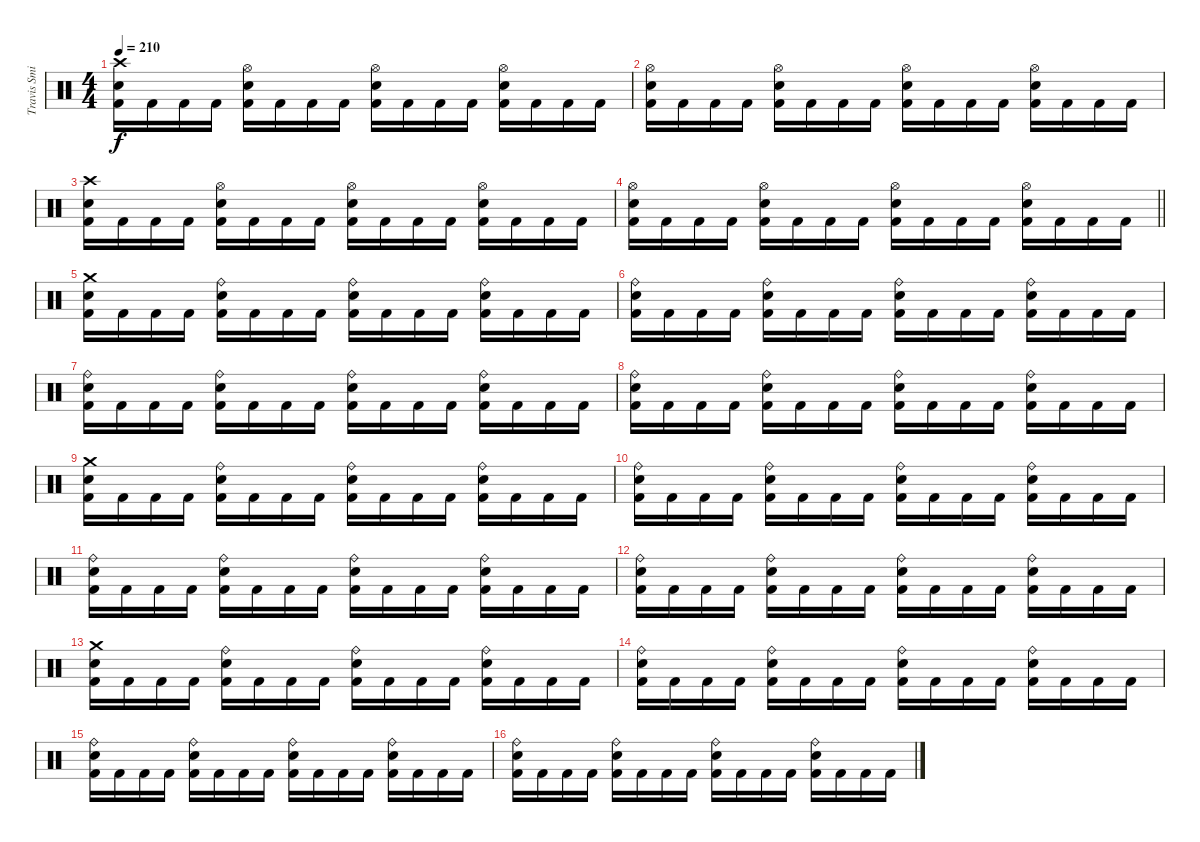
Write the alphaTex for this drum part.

\track ("Travis Smith" "Travis Smi") {instrument percussion}
\staff {score}
\articulation defaults
\ts (4 4)
\tempo 210
\clef neutral
\ks c
("Crash high (hit)" "Electric Snare (hit)" "Kick (hit) 2").16{dy f} "Kick (hit) 2".16 "Kick (hit) 2".16 "Kick (hit) 2".16 ("Hi-Hat (open)" "Electric Snare (hit)" "Kick (hit) 2").16 "Kick (hit) 2".16 "Kick (hit) 2".16 "Kick (hit) 2".16 ("Hi-Hat (open)" "Electric Snare (hit)" "Kick (hit) 2").16 "Kick (hit) 2".16 "Kick (hit) 2".16 "Kick (hit) 2".16 ("Hi-Hat (open)" "Electric Snare (hit)" "Kick (hit) 2").16 "Kick (hit) 2".16 "Kick (hit) 2".16 "Kick (hit) 2".16 |
("Hi-Hat (open)" "Electric Snare (hit)" "Kick (hit) 2").16 "Kick (hit) 2".16 "Kick (hit) 2".16 "Kick (hit) 2".16 ("Hi-Hat (open)" "Electric Snare (hit)" "Kick (hit) 2").16 "Kick (hit) 2".16 "Kick (hit) 2".16 "Kick (hit) 2".16 ("Hi-Hat (open)" "Electric Snare (hit)" "Kick (hit) 2").16 "Kick (hit) 2".16 "Kick (hit) 2".16 "Kick (hit) 2".16 ("Hi-Hat (open)" "Electric Snare (hit)" "Kick (hit) 2").16 "Kick (hit) 2".16 "Kick (hit) 2".16 "Kick (hit) 2".16 |
("Crash high (hit)" "Electric Snare (hit)" "Kick (hit) 2").16 "Kick (hit) 2".16 "Kick (hit) 2".16 "Kick (hit) 2".16 ("Hi-Hat (open)" "Electric Snare (hit)" "Kick (hit) 2").16 "Kick (hit) 2".16 "Kick (hit) 2".16 "Kick (hit) 2".16 ("Hi-Hat (open)" "Electric Snare (hit)" "Kick (hit) 2").16 "Kick (hit) 2".16 "Kick (hit) 2".16 "Kick (hit) 2".16 ("Hi-Hat (open)" "Electric Snare (hit)" "Kick (hit) 2").16 "Kick (hit) 2".16 "Kick (hit) 2".16 "Kick (hit) 2".16 |
\barLineRight lightlight
("Hi-Hat (open)" "Electric Snare (hit)" "Kick (hit) 2").16 "Kick (hit) 2".16 "Kick (hit) 2".16 "Kick (hit) 2".16 ("Hi-Hat (open)" "Electric Snare (hit)" "Kick (hit) 2").16 "Kick (hit) 2".16 "Kick (hit) 2".16 "Kick (hit) 2".16 ("Hi-Hat (open)" "Electric Snare (hit)" "Kick (hit) 2").16 "Kick (hit) 2".16 "Kick (hit) 2".16 "Kick (hit) 2".16 ("Hi-Hat (open)" "Electric Snare (hit)" "Kick (hit) 2").16 "Kick (hit) 2".16 "Kick (hit) 2".16 "Kick (hit) 2".16 |
("Crash medium (hit)" "Electric Snare (hit)" "Kick (hit) 2").16 "Kick (hit) 2".16 "Kick (hit) 2".16 "Kick (hit) 2".16 ("Ride (bell)" "Electric Snare (hit)" "Kick (hit) 2").16 "Kick (hit) 2".16 "Kick (hit) 2".16 "Kick (hit) 2".16 ("Ride (bell)" "Electric Snare (hit)" "Kick (hit) 2").16 "Kick (hit) 2".16 "Kick (hit) 2".16 "Kick (hit) 2".16 ("Ride (bell)" "Electric Snare (hit)" "Kick (hit) 2").16 "Kick (hit) 2".16 "Kick (hit) 2".16 "Kick (hit) 2".16 |
("Ride (bell)" "Electric Snare (hit)" "Kick (hit) 2").16 "Kick (hit) 2".16 "Kick (hit) 2".16 "Kick (hit) 2".16 ("Ride (bell)" "Electric Snare (hit)" "Kick (hit) 2").16 "Kick (hit) 2".16 "Kick (hit) 2".16 "Kick (hit) 2".16 ("Ride (bell)" "Electric Snare (hit)" "Kick (hit) 2").16 "Kick (hit) 2".16 "Kick (hit) 2".16 "Kick (hit) 2".16 ("Ride (bell)" "Electric Snare (hit)" "Kick (hit) 2").16 "Kick (hit) 2".16 "Kick (hit) 2".16 "Kick (hit) 2".16 |
("Ride (bell)" "Electric Snare (hit)" "Kick (hit) 2").16 "Kick (hit) 2".16 "Kick (hit) 2".16 "Kick (hit) 2".16 ("Ride (bell)" "Electric Snare (hit)" "Kick (hit) 2").16 "Kick (hit) 2".16 "Kick (hit) 2".16 "Kick (hit) 2".16 ("Ride (bell)" "Electric Snare (hit)" "Kick (hit) 2").16 "Kick (hit) 2".16 "Kick (hit) 2".16 "Kick (hit) 2".16 ("Ride (bell)" "Electric Snare (hit)" "Kick (hit) 2").16 "Kick (hit) 2".16 "Kick (hit) 2".16 "Kick (hit) 2".16 |
("Ride (bell)" "Electric Snare (hit)" "Kick (hit) 2").16 "Kick (hit) 2".16 "Kick (hit) 2".16 "Kick (hit) 2".16 ("Ride (bell)" "Electric Snare (hit)" "Kick (hit) 2").16 "Kick (hit) 2".16 "Kick (hit) 2".16 "Kick (hit) 2".16 ("Ride (bell)" "Electric Snare (hit)" "Kick (hit) 2").16 "Kick (hit) 2".16 "Kick (hit) 2".16 "Kick (hit) 2".16 ("Ride (bell)" "Electric Snare (hit)" "Kick (hit) 2").16 "Kick (hit) 2".16 "Kick (hit) 2".16 "Kick (hit) 2".16 |
("Crash medium (hit)" "Electric Snare (hit)" "Kick (hit) 2").16 "Kick (hit) 2".16 "Kick (hit) 2".16 "Kick (hit) 2".16 ("Ride (bell)" "Electric Snare (hit)" "Kick (hit) 2").16 "Kick (hit) 2".16 "Kick (hit) 2".16 "Kick (hit) 2".16 ("Ride (bell)" "Electric Snare (hit)" "Kick (hit) 2").16 "Kick (hit) 2".16 "Kick (hit) 2".16 "Kick (hit) 2".16 ("Ride (bell)" "Electric Snare (hit)" "Kick (hit) 2").16 "Kick (hit) 2".16 "Kick (hit) 2".16 "Kick (hit) 2".16 |
("Ride (bell)" "Electric Snare (hit)" "Kick (hit) 2").16 "Kick (hit) 2".16 "Kick (hit) 2".16 "Kick (hit) 2".16 ("Ride (bell)" "Electric Snare (hit)" "Kick (hit) 2").16 "Kick (hit) 2".16 "Kick (hit) 2".16 "Kick (hit) 2".16 ("Ride (bell)" "Electric Snare (hit)" "Kick (hit) 2").16 "Kick (hit) 2".16 "Kick (hit) 2".16 "Kick (hit) 2".16 ("Ride (bell)" "Electric Snare (hit)" "Kick (hit) 2").16 "Kick (hit) 2".16 "Kick (hit) 2".16 "Kick (hit) 2".16 |
("Ride (bell)" "Electric Snare (hit)" "Kick (hit) 2").16 "Kick (hit) 2".16 "Kick (hit) 2".16 "Kick (hit) 2".16 ("Ride (bell)" "Electric Snare (hit)" "Kick (hit) 2").16 "Kick (hit) 2".16 "Kick (hit) 2".16 "Kick (hit) 2".16 ("Ride (bell)" "Electric Snare (hit)" "Kick (hit) 2").16 "Kick (hit) 2".16 "Kick (hit) 2".16 "Kick (hit) 2".16 ("Ride (bell)" "Electric Snare (hit)" "Kick (hit) 2").16 "Kick (hit) 2".16 "Kick (hit) 2".16 "Kick (hit) 2".16 |
("Ride (bell)" "Electric Snare (hit)" "Kick (hit) 2").16 "Kick (hit) 2".16 "Kick (hit) 2".16 "Kick (hit) 2".16 ("Ride (bell)" "Electric Snare (hit)" "Kick (hit) 2").16 "Kick (hit) 2".16 "Kick (hit) 2".16 "Kick (hit) 2".16 ("Ride (bell)" "Electric Snare (hit)" "Kick (hit) 2").16 "Kick (hit) 2".16 "Kick (hit) 2".16 "Kick (hit) 2".16 ("Ride (bell)" "Electric Snare (hit)" "Kick (hit) 2").16 "Kick (hit) 2".16 "Kick (hit) 2".16 "Kick (hit) 2".16 |
("Crash medium (hit)" "Electric Snare (hit)" "Kick (hit) 2").16 "Kick (hit) 2".16 "Kick (hit) 2".16 "Kick (hit) 2".16 ("Ride (bell)" "Electric Snare (hit)" "Kick (hit) 2").16 "Kick (hit) 2".16 "Kick (hit) 2".16 "Kick (hit) 2".16 ("Ride (bell)" "Electric Snare (hit)" "Kick (hit) 2").16 "Kick (hit) 2".16 "Kick (hit) 2".16 "Kick (hit) 2".16 ("Ride (bell)" "Electric Snare (hit)" "Kick (hit) 2").16 "Kick (hit) 2".16 "Kick (hit) 2".16 "Kick (hit) 2".16 |
("Ride (bell)" "Electric Snare (hit)" "Kick (hit) 2").16 "Kick (hit) 2".16 "Kick (hit) 2".16 "Kick (hit) 2".16 ("Ride (bell)" "Electric Snare (hit)" "Kick (hit) 2").16 "Kick (hit) 2".16 "Kick (hit) 2".16 "Kick (hit) 2".16 ("Ride (bell)" "Electric Snare (hit)" "Kick (hit) 2").16 "Kick (hit) 2".16 "Kick (hit) 2".16 "Kick (hit) 2".16 ("Ride (bell)" "Electric Snare (hit)" "Kick (hit) 2").16 "Kick (hit) 2".16 "Kick (hit) 2".16 "Kick (hit) 2".16 |
("Ride (bell)" "Electric Snare (hit)" "Kick (hit) 2").16 "Kick (hit) 2".16 "Kick (hit) 2".16 "Kick (hit) 2".16 ("Ride (bell)" "Electric Snare (hit)" "Kick (hit) 2").16 "Kick (hit) 2".16 "Kick (hit) 2".16 "Kick (hit) 2".16 ("Ride (bell)" "Electric Snare (hit)" "Kick (hit) 2").16 "Kick (hit) 2".16 "Kick (hit) 2".16 "Kick (hit) 2".16 ("Ride (bell)" "Electric Snare (hit)" "Kick (hit) 2").16 "Kick (hit) 2".16 "Kick (hit) 2".16 "Kick (hit) 2".16 |
("Ride (bell)" "Electric Snare (hit)" "Kick (hit) 2").16 "Kick (hit) 2".16 "Kick (hit) 2".16 "Kick (hit) 2".16 ("Ride (bell)" "Electric Snare (hit)" "Kick (hit) 2").16 "Kick (hit) 2".16 "Kick (hit) 2".16 "Kick (hit) 2".16 ("Ride (bell)" "Electric Snare (hit)" "Kick (hit) 2").16 "Kick (hit) 2".16 "Kick (hit) 2".16 "Kick (hit) 2".16 ("Ride (bell)" "Electric Snare (hit)" "Kick (hit) 2").16 "Kick (hit) 2".16 "Kick (hit) 2".16 "Kick (hit) 2".16
